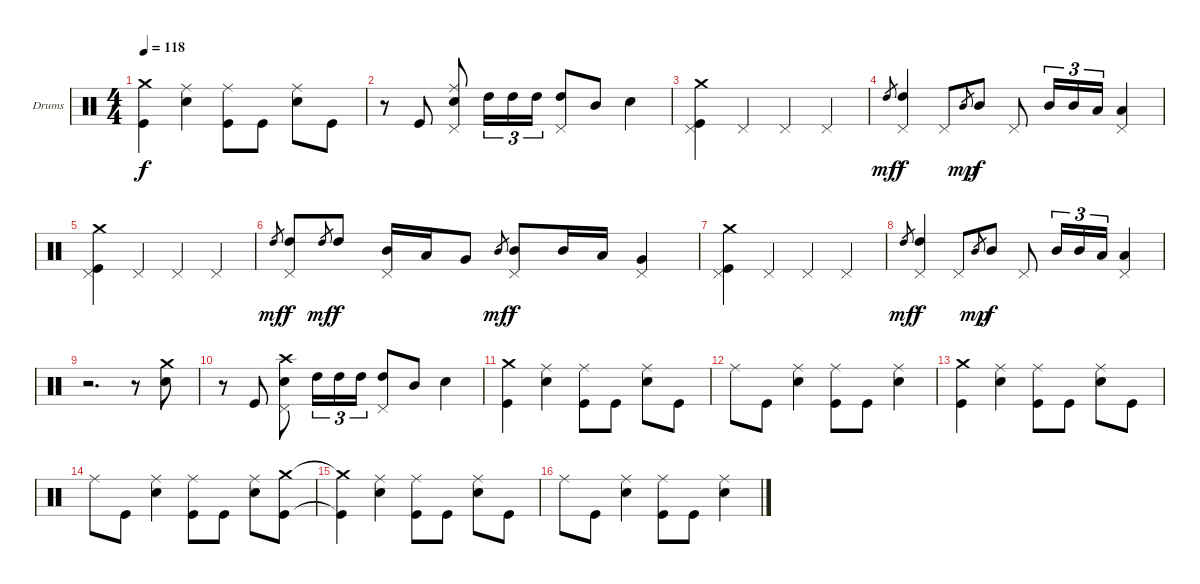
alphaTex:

\bracketExtendMode groupsimilarinstruments
\firstSystemTrackNameOrientation horizontal
\otherSystemsTrackNameOrientation horizontal
\track ("Drumkit" "Drums") {instrument percussion}
\staff {score}
\articulation defaults
\ts (4 4)
\tempo 118
\clef neutral
\ks c
("Crash medium (hit)" "Kick (hit)").4{dy f} ("Ride (middle)" "Snare (hit) 2").4 ("Ride (middle)" "Kick (hit)").8 "Kick (hit)".8 ("Ride (middle)" "Snare (hit) 2").8 "Kick (hit)".8 |
r.8 "Kick (hit)".8 ("Ride (middle)" "Snare (hit) 2" "Pedal Hi-Hat (hit)").8 "High Tom (hit)".16{tu (3 2)} "High Tom (hit)".16{tu (3 2)} "High Tom (hit)".16{tu (3 2)} ("High Tom (hit)" "Pedal Hi-Hat (hit)").8 "Mid Tom (hit)".8 "Snare (hit) 2".4 |
("Crash medium (hit)" "Kick (hit)" "Pedal Hi-Hat (hit)").4 "Pedal Hi-Hat (hit)".4 "Pedal Hi-Hat (hit)".4 "Pedal Hi-Hat (hit)".4 |
"High Tom (hit)".8{gr dy mf} ("High Tom (hit)" "Pedal Hi-Hat (hit)").4{dy f} "Pedal Hi-Hat (hit)".8 "Mid Tom (hit)".8{gr dy mp} "Mid Tom (hit)".8{dy f} "Pedal Hi-Hat (hit)".8 "Mid Tom (hit)".16{tu (3 2)} "Mid Tom (hit)".16{tu (3 2)} "Low Tom (hit)".16{tu (3 2)} ("Pedal Hi-Hat (hit)" "Low Tom (hit)").4 |
("Crash medium (hit)" "Kick (hit)" "Pedal Hi-Hat (hit)").4 "Pedal Hi-Hat (hit)".4 "Pedal Hi-Hat (hit)".4 "Pedal Hi-Hat (hit)".4 |
"High Tom (hit)".8{gr dy mf} ("High Tom (hit)" "Pedal Hi-Hat (hit)").8{dy f} "High Tom (hit)".8{gr dy mf} "High Tom (hit)".8{dy f} ("Mid Tom (hit)" "Pedal Hi-Hat (hit)").16 "Low Tom (hit)".16 "Very Low Tom (hit)".8 "Mid Tom (hit)".8{gr dy mf} ("Mid Tom (hit)" "Pedal Hi-Hat (hit)").8{dy f} "Mid Tom (hit)".16 "Low Tom (hit)".16 ("Very Low Tom (hit)" "Pedal Hi-Hat (hit)").4 |
("Crash medium (hit)" "Kick (hit)" "Pedal Hi-Hat (hit)").4 "Pedal Hi-Hat (hit)".4 "Pedal Hi-Hat (hit)".4 "Pedal Hi-Hat (hit)".4 |
"High Tom (hit)".8{gr dy mf} ("High Tom (hit)" "Pedal Hi-Hat (hit)").4{dy f} "Pedal Hi-Hat (hit)".8 "Mid Tom (hit)".8{gr dy mp} "Mid Tom (hit)".8{dy f} "Pedal Hi-Hat (hit)".8 "Mid Tom (hit)".16{tu (3 2)} "Mid Tom (hit)".16{tu (3 2)} "Low Tom (hit)".16{tu (3 2)} ("Pedal Hi-Hat (hit)" "Low Tom (hit)").4 |
r.2{d} r.8 ("Crash medium (hit)" "Snare (hit) 2").8 |
r.8 "Kick (hit)".8 ("Crash high (hit)" "Snare (hit) 2" "Pedal Hi-Hat (hit)").8 "High Tom (hit)".16{tu (3 2)} "High Tom (hit)".16{tu (3 2)} "High Tom (hit)".16{tu (3 2)} ("High Tom (hit)" "Pedal Hi-Hat (hit)").8 "Mid Tom (hit)".8 "Snare (hit) 2".4 |
("Crash medium (hit)" "Kick (hit)").4 ("Ride (middle)" "Snare (hit) 2").4 ("Ride (middle)" "Kick (hit)").8 "Kick (hit)".8 ("Ride (middle)" "Snare (hit) 2").8 "Kick (hit)".8 |
"Ride (middle)".8 "Kick (hit)".8 ("Ride (middle)" "Snare (hit) 2").4 ("Ride (middle)" "Kick (hit)").8 "Kick (hit)".8 ("Ride (middle)" "Snare (hit) 2").4 |
("Crash medium (hit)" "Kick (hit)").4 ("Ride (middle)" "Snare (hit) 2").4 ("Ride (middle)" "Kick (hit)").8 "Kick (hit)".8 ("Ride (middle)" "Snare (hit) 2").8 "Kick (hit)".8 |
"Ride (middle)".8 "Kick (hit)".8 ("Ride (middle)" "Snare (hit) 2").4 ("Ride (middle)" "Kick (hit)").8 "Kick (hit)".8 ("Ride (middle)" "Snare (hit) 2").8 ("Crash medium (hit)" "Kick (hit)").8 |
("Crash medium (hit)"{t} "Kick (hit)"{t}).4 ("Ride (middle)" "Snare (hit) 2").4 ("Ride (middle)" "Kick (hit)").8 "Kick (hit)".8 ("Ride (middle)" "Snare (hit) 2").8 "Kick (hit)".8 |
"Ride (middle)".8 "Kick (hit)".8 ("Ride (middle)" "Snare (hit) 2").4 ("Ride (middle)" "Kick (hit)").8 "Kick (hit)".8 ("Ride (middle)" "Snare (hit) 2").4
